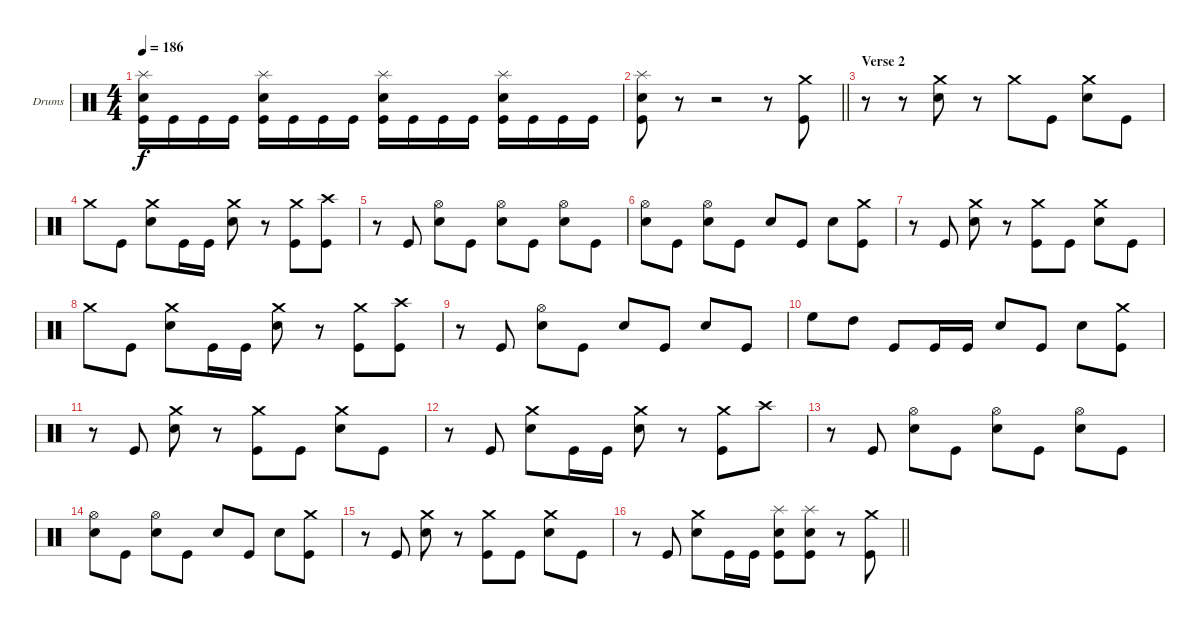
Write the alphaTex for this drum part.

\bracketExtendMode groupsimilarinstruments
\firstSystemTrackNameOrientation horizontal
\otherSystemsTrackNameOrientation horizontal
\track ("Drumkit" "Drums") {instrument percussion}
\staff {score}
\articulation defaults
\ts (4 4)
\tempo 186
\clef neutral
\scale
0.333333
\ks c
("Splash (hit)" "Snare (hit) 2" "Kick (hit)").16{dy f} "Kick (hit)".16 "Kick (hit)".16 "Kick (hit)".16 ("Splash (hit)" "Snare (hit) 2" "Kick (hit)").16 "Kick (hit)".16 "Kick (hit)".16 "Kick (hit)".16 ("Splash (hit)" "Snare (hit) 2" "Kick (hit)").16 "Kick (hit)".16 "Kick (hit)".16 "Kick (hit)".16 ("Splash (hit)" "Snare (hit) 2" "Kick (hit)").16 "Kick (hit)".16 "Kick (hit)".16 "Kick (hit)".16 |
\scale
0.333333
\barLineRight lightlight
("Splash (hit)" "Snare (hit) 2" "Kick (hit)").8 r.8 r.2 r.8 ("Crash medium (hit)" "Kick (hit)").8 |
\section ("" "Verse 2")
\scale
0.333333 r.8 r.8 ("Crash medium (hit)" "Snare (hit) 2").8 r.8 "Crash medium (hit)".8 "Kick (hit)".8 ("Crash medium (hit)" "Snare (hit) 2").8 "Kick (hit)".8 |
\scale
0.333333 "Crash medium (hit)".8 "Kick (hit)".8 ("Crash medium (hit)" "Snare (hit) 2").8 "Kick (hit)".16 "Kick (hit)".16 ("Crash medium (hit)" "Snare (hit) 2").8 r.8 ("Crash medium (hit)" "Kick (hit)").8 ("Crash high (hit)" "Kick (hit)").8 |
\scale
0.333333 r.8 "Kick (hit)".8 ("Hi-Hat (open)" "Snare (hit) 2").8 "Kick (hit)".8 ("Hi-Hat (open)" "Snare (hit) 2").8 "Kick (hit)".8 ("Hi-Hat (open)" "Snare (hit) 2").8 "Kick (hit)".8 |
\scale
0.333333 ("Hi-Hat (open)" "Snare (hit) 2").8 "Kick (hit)".8 ("Hi-Hat (open)" "Snare (hit) 2").8 "Kick (hit)".8 "Snare (hit) 2".8 "Kick (hit)".8 "Snare (hit) 2".8 ("Crash medium (hit)" "Kick (hit)").8 |
\scale
0.333333 r.8 "Kick (hit)".8 ("Crash medium (hit)" "Snare (hit) 2").8 r.8 ("Crash medium (hit)" "Kick (hit)").8 "Kick (hit)".8 ("Crash medium (hit)" "Snare (hit) 2").8 "Kick (hit)".8 |
\scale
0.333333 "Crash medium (hit)".8 "Kick (hit)".8 ("Crash medium (hit)" "Snare (hit) 2").8 "Kick (hit)".16 "Kick (hit)".16 ("Crash medium (hit)" "Snare (hit) 2").8 r.8 ("Crash medium (hit)" "Kick (hit)").8 ("Crash high (hit)" "Kick (hit)").8 |
\scale
0.333333 r.8 "Kick (hit)".8 ("Hi-Hat (open)" "Snare (hit) 2").8 "Kick (hit)".8 "Snare (hit) 2".8 "Kick (hit)".8 "Snare (hit) 2".8 "Kick (hit)".8 |
\scale
0.333333 "High Floor Tom (hit)".8 "High Tom (hit)".8 "Kick (hit)".8 "Kick (hit)".16 "Kick (hit)".16 "Snare (hit) 2".8 "Kick (hit)".8 "Snare (hit) 2".8 ("Crash medium (hit)" "Kick (hit)").8 |
\scale
0.333333 r.8 "Kick (hit)".8 ("Crash medium (hit)" "Snare (hit) 2").8 r.8 ("Crash medium (hit)" "Kick (hit)").8 "Kick (hit)".8 ("Crash medium (hit)" "Snare (hit) 2").8 "Kick (hit)".8 |
\scale
0.333333 r.8 "Kick (hit)".8 ("Crash medium (hit)" "Snare (hit) 2").8 "Kick (hit)".16 "Kick (hit)".16 ("Crash medium (hit)" "Snare (hit) 2").8 r.8 ("Crash medium (hit)" "Kick (hit)").8 "Crash high (hit)".8 |
\scale
0.333333 r.8 "Kick (hit)".8 ("Hi-Hat (open)" "Snare (hit) 2").8 "Kick (hit)".8 ("Hi-Hat (open)" "Snare (hit) 2").8 "Kick (hit)".8 ("Hi-Hat (open)" "Snare (hit) 2").8 "Kick (hit)".8 |
\scale
0.333333 ("Hi-Hat (open)" "Snare (hit) 2").8 "Kick (hit)".8 ("Hi-Hat (open)" "Snare (hit) 2").8 "Kick (hit)".8 "Snare (hit) 2".8 "Kick (hit)".8 "Snare (hit) 2".8 ("Crash medium (hit)" "Kick (hit)").8 |
\scale
0.333333 r.8 "Kick (hit)".8 ("Crash medium (hit)" "Snare (hit) 2").8 r.8 ("Crash medium (hit)" "Kick (hit)").8 "Kick (hit)".8 ("Crash medium (hit)" "Snare (hit) 2").8 "Kick (hit)".8 |
\scale
0.333333
\barLineRight lightlight
r.8 "Kick (hit)".8 ("Crash medium (hit)" "Snare (hit) 2").8 "Kick (hit)".16 "Kick (hit)".16 ("Splash (hit)" "Snare (hit) 2" "Kick (hit)").8 ("Splash (hit)" "Snare (hit) 2" "Kick (hit)").8 r.8 ("Crash medium (hit)" "Kick (hit)").8
